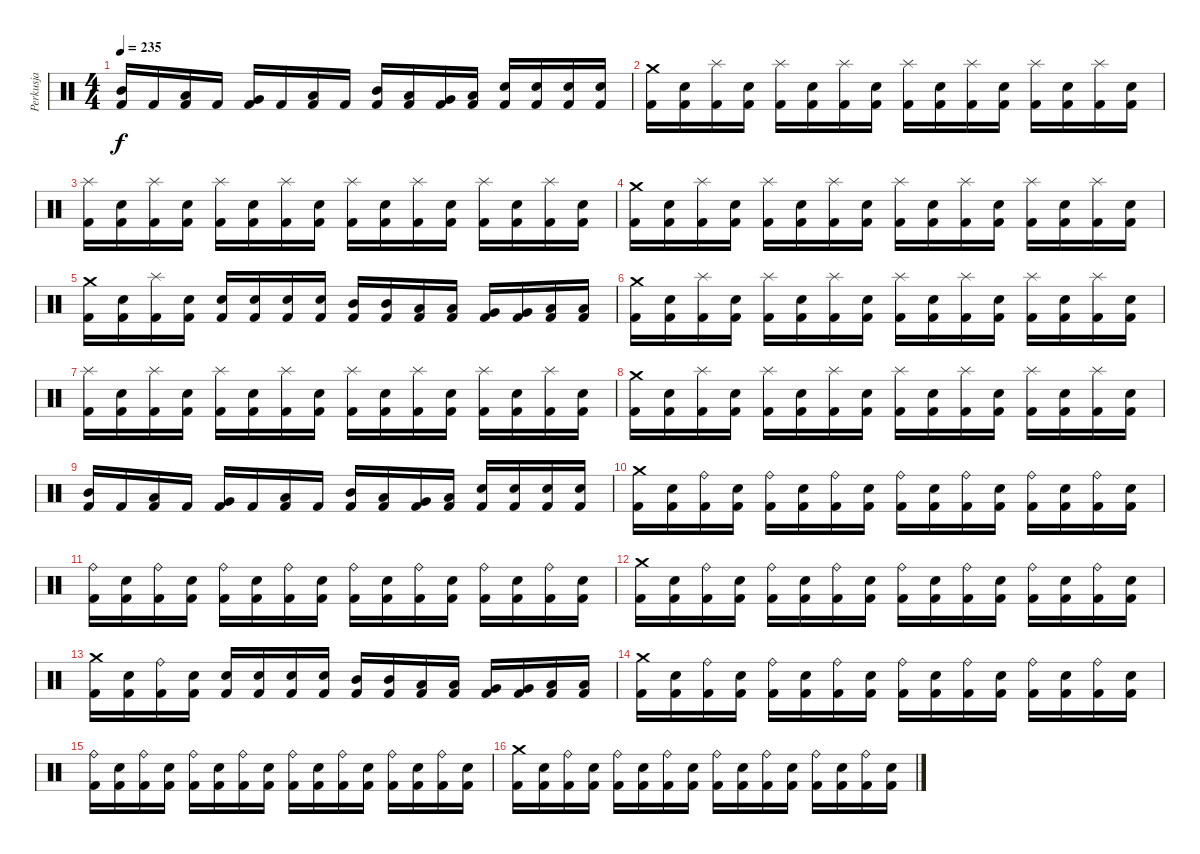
\track ("Perkusja" "Perkusja") {instrument percussion}
\staff {score}
\articulation defaults
\ts (4 4)
\tempo 235
\clef neutral
\ks c
("Mid Tom (hit)" "Kick (hit) 2").16{dy f} "Kick (hit) 2".16 ("Low Tom (hit)" "Kick (hit) 2").16 "Kick (hit) 2".16 ("Very Low Tom (hit)" "Kick (hit) 2").16 "Kick (hit) 2".16 ("Low Floor Tom (hit)" "Kick (hit) 2").16 "Kick (hit) 2".16 ("Mid Tom (hit)" "Kick (hit) 2").16 ("Low Tom (hit)" "Kick (hit) 2").16 ("Very Low Tom (hit)" "Kick (hit) 2").16 ("Low Floor Tom (hit)" "Kick (hit) 2").16 ("Snare (hit) 2" "Kick (hit) 2").16 ("Snare (hit) 2" "Kick (hit) 2").16 ("Snare (hit) 2" "Kick (hit) 2").16 ("Snare (hit) 2" "Kick (hit) 2").16 |
("Crash medium (hit)" "Kick (hit) 2").16 ("Snare (hit) 2" "Kick (hit) 2").16 ("Splash (hit)" "Kick (hit) 2").16 ("Snare (hit) 2" "Kick (hit) 2").16 ("Splash (hit)" "Kick (hit) 2").16 ("Snare (hit) 2" "Kick (hit) 2").16 ("Splash (hit)" "Kick (hit) 2").16 ("Snare (hit) 2" "Kick (hit) 2").16 ("Splash (hit)" "Kick (hit) 2").16 ("Snare (hit) 2" "Kick (hit) 2").16 ("Splash (hit)" "Kick (hit) 2").16 ("Snare (hit) 2" "Kick (hit) 2").16 ("Splash (hit)" "Kick (hit) 2").16 ("Snare (hit) 2" "Kick (hit) 2").16 ("Splash (hit)" "Kick (hit) 2").16 ("Snare (hit) 2" "Kick (hit) 2").16 |
("Splash (hit)" "Kick (hit) 2").16 ("Snare (hit) 2" "Kick (hit) 2").16 ("Splash (hit)" "Kick (hit) 2").16 ("Snare (hit) 2" "Kick (hit) 2").16 ("Splash (hit)" "Kick (hit) 2").16 ("Snare (hit) 2" "Kick (hit) 2").16 ("Splash (hit)" "Kick (hit) 2").16 ("Snare (hit) 2" "Kick (hit) 2").16 ("Splash (hit)" "Kick (hit) 2").16 ("Snare (hit) 2" "Kick (hit) 2").16 ("Splash (hit)" "Kick (hit) 2").16 ("Snare (hit) 2" "Kick (hit) 2").16 ("Splash (hit)" "Kick (hit) 2").16 ("Snare (hit) 2" "Kick (hit) 2").16 ("Splash (hit)" "Kick (hit) 2").16 ("Snare (hit) 2" "Kick (hit) 2").16 |
("Crash medium (hit)" "Kick (hit) 2").16 ("Snare (hit) 2" "Kick (hit) 2").16 ("Splash (hit)" "Kick (hit) 2").16 ("Snare (hit) 2" "Kick (hit) 2").16 ("Splash (hit)" "Kick (hit) 2").16 ("Snare (hit) 2" "Kick (hit) 2").16 ("Splash (hit)" "Kick (hit) 2").16 ("Snare (hit) 2" "Kick (hit) 2").16 ("Splash (hit)" "Kick (hit) 2").16 ("Snare (hit) 2" "Kick (hit) 2").16 ("Splash (hit)" "Kick (hit) 2").16 ("Snare (hit) 2" "Kick (hit) 2").16 ("Splash (hit)" "Kick (hit) 2").16 ("Snare (hit) 2" "Kick (hit) 2").16 ("Splash (hit)" "Kick (hit) 2").16 ("Snare (hit) 2" "Kick (hit) 2").16 |
("Crash medium (hit)" "Kick (hit) 2").16 ("Snare (hit) 2" "Kick (hit) 2").16 ("Splash (hit)" "Kick (hit) 2").16 ("Snare (hit) 2" "Kick (hit) 2").16 ("Electric Snare (hit)" "Kick (hit) 2").16 ("Electric Snare (hit)" "Kick (hit) 2").16 ("Electric Snare (hit)" "Kick (hit) 2").16 ("Electric Snare (hit)" "Kick (hit) 2").16 ("Mid Tom (hit)" "Kick (hit) 2").16 ("Mid Tom (hit)" "Kick (hit) 2").16 ("Low Tom (hit)" "Kick (hit) 2").16 ("Low Tom (hit)" "Kick (hit) 2").16 ("Very Low Tom (hit)" "Kick (hit) 2").16 ("Very Low Tom (hit)" "Kick (hit) 2").16 ("Low Floor Tom (hit)" "Kick (hit) 2").16 ("Low Floor Tom (hit)" "Kick (hit) 2").16 |
("Crash medium (hit)" "Kick (hit) 2").16 ("Snare (hit) 2" "Kick (hit) 2").16 ("Splash (hit)" "Kick (hit) 2").16 ("Snare (hit) 2" "Kick (hit) 2").16 ("Splash (hit)" "Kick (hit) 2").16 ("Snare (hit) 2" "Kick (hit) 2").16 ("Splash (hit)" "Kick (hit) 2").16 ("Snare (hit) 2" "Kick (hit) 2").16 ("Splash (hit)" "Kick (hit) 2").16 ("Snare (hit) 2" "Kick (hit) 2").16 ("Splash (hit)" "Kick (hit) 2").16 ("Snare (hit) 2" "Kick (hit) 2").16 ("Splash (hit)" "Kick (hit) 2").16 ("Snare (hit) 2" "Kick (hit) 2").16 ("Splash (hit)" "Kick (hit) 2").16 ("Snare (hit) 2" "Kick (hit) 2").16 |
("Splash (hit)" "Kick (hit) 2").16 ("Snare (hit) 2" "Kick (hit) 2").16 ("Splash (hit)" "Kick (hit) 2").16 ("Snare (hit) 2" "Kick (hit) 2").16 ("Splash (hit)" "Kick (hit) 2").16 ("Snare (hit) 2" "Kick (hit) 2").16 ("Splash (hit)" "Kick (hit) 2").16 ("Snare (hit) 2" "Kick (hit) 2").16 ("Splash (hit)" "Kick (hit) 2").16 ("Snare (hit) 2" "Kick (hit) 2").16 ("Splash (hit)" "Kick (hit) 2").16 ("Snare (hit) 2" "Kick (hit) 2").16 ("Splash (hit)" "Kick (hit) 2").16 ("Snare (hit) 2" "Kick (hit) 2").16 ("Splash (hit)" "Kick (hit) 2").16 ("Snare (hit) 2" "Kick (hit) 2").16 |
("Crash medium (hit)" "Kick (hit) 2").16 ("Snare (hit) 2" "Kick (hit) 2").16 ("Splash (hit)" "Kick (hit) 2").16 ("Snare (hit) 2" "Kick (hit) 2").16 ("Splash (hit)" "Kick (hit) 2").16 ("Snare (hit) 2" "Kick (hit) 2").16 ("Splash (hit)" "Kick (hit) 2").16 ("Snare (hit) 2" "Kick (hit) 2").16 ("Splash (hit)" "Kick (hit) 2").16 ("Snare (hit) 2" "Kick (hit) 2").16 ("Splash (hit)" "Kick (hit) 2").16 ("Snare (hit) 2" "Kick (hit) 2").16 ("Splash (hit)" "Kick (hit) 2").16 ("Snare (hit) 2" "Kick (hit) 2").16 ("Splash (hit)" "Kick (hit) 2").16 ("Snare (hit) 2" "Kick (hit) 2").16 |
("Mid Tom (hit)" "Kick (hit) 2").16 "Kick (hit) 2".16 ("Low Tom (hit)" "Kick (hit) 2").16 "Kick (hit) 2".16 ("Very Low Tom (hit)" "Kick (hit) 2").16 "Kick (hit) 2".16 ("Low Floor Tom (hit)" "Kick (hit) 2").16 "Kick (hit) 2".16 ("Mid Tom (hit)" "Kick (hit) 2").16 ("Low Tom (hit)" "Kick (hit) 2").16 ("Very Low Tom (hit)" "Kick (hit) 2").16 ("Low Floor Tom (hit)" "Kick (hit) 2").16 ("Snare (hit) 2" "Kick (hit) 2").16 ("Snare (hit) 2" "Kick (hit) 2").16 ("Snare (hit) 2" "Kick (hit) 2").16 ("Snare (hit) 2" "Kick (hit) 2").16 |
("Crash medium (hit)" "Kick (hit) 2").16 ("Snare (hit) 2" "Kick (hit) 2").16 ("Ride (bell)" "Kick (hit) 2").16 ("Snare (hit) 2" "Kick (hit) 2").16 ("Ride (bell)" "Kick (hit) 2").16 ("Snare (hit) 2" "Kick (hit) 2").16 ("Ride (bell)" "Kick (hit) 2").16 ("Snare (hit) 2" "Kick (hit) 2").16 ("Ride (bell)" "Kick (hit) 2").16 ("Snare (hit) 2" "Kick (hit) 2").16 ("Ride (bell)" "Kick (hit) 2").16 ("Snare (hit) 2" "Kick (hit) 2").16 ("Ride (bell)" "Kick (hit) 2").16 ("Snare (hit) 2" "Kick (hit) 2").16 ("Ride (bell)" "Kick (hit) 2").16 ("Snare (hit) 2" "Kick (hit) 2").16 |
("Ride (bell)" "Kick (hit) 2").16 ("Snare (hit) 2" "Kick (hit) 2").16 ("Ride (bell)" "Kick (hit) 2").16 ("Snare (hit) 2" "Kick (hit) 2").16 ("Ride (bell)" "Kick (hit) 2").16 ("Snare (hit) 2" "Kick (hit) 2").16 ("Ride (bell)" "Kick (hit) 2").16 ("Snare (hit) 2" "Kick (hit) 2").16 ("Ride (bell)" "Kick (hit) 2").16 ("Snare (hit) 2" "Kick (hit) 2").16 ("Ride (bell)" "Kick (hit) 2").16 ("Snare (hit) 2" "Kick (hit) 2").16 ("Ride (bell)" "Kick (hit) 2").16 ("Snare (hit) 2" "Kick (hit) 2").16 ("Ride (bell)" "Kick (hit) 2").16 ("Snare (hit) 2" "Kick (hit) 2").16 |
("Crash medium (hit)" "Kick (hit) 2").16 ("Snare (hit) 2" "Kick (hit) 2").16 ("Ride (bell)" "Kick (hit) 2").16 ("Snare (hit) 2" "Kick (hit) 2").16 ("Ride (bell)" "Kick (hit) 2").16 ("Snare (hit) 2" "Kick (hit) 2").16 ("Ride (bell)" "Kick (hit) 2").16 ("Snare (hit) 2" "Kick (hit) 2").16 ("Ride (bell)" "Kick (hit) 2").16 ("Snare (hit) 2" "Kick (hit) 2").16 ("Ride (bell)" "Kick (hit) 2").16 ("Snare (hit) 2" "Kick (hit) 2").16 ("Ride (bell)" "Kick (hit) 2").16 ("Snare (hit) 2" "Kick (hit) 2").16 ("Ride (bell)" "Kick (hit) 2").16 ("Snare (hit) 2" "Kick (hit) 2").16 |
("Crash medium (hit)" "Kick (hit) 2").16 ("Snare (hit) 2" "Kick (hit) 2").16 ("Ride (bell)" "Kick (hit) 2").16 ("Snare (hit) 2" "Kick (hit) 2").16 ("Electric Snare (hit)" "Kick (hit) 2").16 ("Electric Snare (hit)" "Kick (hit) 2").16 ("Electric Snare (hit)" "Kick (hit) 2").16 ("Electric Snare (hit)" "Kick (hit) 2").16 ("Mid Tom (hit)" "Kick (hit) 2").16 ("Mid Tom (hit)" "Kick (hit) 2").16 ("Low Tom (hit)" "Kick (hit) 2").16 ("Low Tom (hit)" "Kick (hit) 2").16 ("Very Low Tom (hit)" "Kick (hit) 2").16 ("Very Low Tom (hit)" "Kick (hit) 2").16 ("Low Floor Tom (hit)" "Kick (hit) 2").16 ("Low Floor Tom (hit)" "Kick (hit) 2").16 |
("Crash medium (hit)" "Kick (hit) 2").16 ("Snare (hit) 2" "Kick (hit) 2").16 ("Ride (bell)" "Kick (hit) 2").16 ("Snare (hit) 2" "Kick (hit) 2").16 ("Ride (bell)" "Kick (hit) 2").16 ("Snare (hit) 2" "Kick (hit) 2").16 ("Ride (bell)" "Kick (hit) 2").16 ("Snare (hit) 2" "Kick (hit) 2").16 ("Ride (bell)" "Kick (hit) 2").16 ("Snare (hit) 2" "Kick (hit) 2").16 ("Ride (bell)" "Kick (hit) 2").16 ("Snare (hit) 2" "Kick (hit) 2").16 ("Ride (bell)" "Kick (hit) 2").16 ("Snare (hit) 2" "Kick (hit) 2").16 ("Ride (bell)" "Kick (hit) 2").16 ("Snare (hit) 2" "Kick (hit) 2").16 |
("Ride (bell)" "Kick (hit) 2").16 ("Snare (hit) 2" "Kick (hit) 2").16 ("Ride (bell)" "Kick (hit) 2").16 ("Snare (hit) 2" "Kick (hit) 2").16 ("Ride (bell)" "Kick (hit) 2").16 ("Snare (hit) 2" "Kick (hit) 2").16 ("Ride (bell)" "Kick (hit) 2").16 ("Snare (hit) 2" "Kick (hit) 2").16 ("Ride (bell)" "Kick (hit) 2").16 ("Snare (hit) 2" "Kick (hit) 2").16 ("Ride (bell)" "Kick (hit) 2").16 ("Snare (hit) 2" "Kick (hit) 2").16 ("Ride (bell)" "Kick (hit) 2").16 ("Snare (hit) 2" "Kick (hit) 2").16 ("Ride (bell)" "Kick (hit) 2").16 ("Snare (hit) 2" "Kick (hit) 2").16 |
("Crash medium (hit)" "Kick (hit) 2").16 ("Snare (hit) 2" "Kick (hit) 2").16 ("Ride (bell)" "Kick (hit) 2").16 ("Snare (hit) 2" "Kick (hit) 2").16 ("Ride (bell)" "Kick (hit) 2").16 ("Snare (hit) 2" "Kick (hit) 2").16 ("Ride (bell)" "Kick (hit) 2").16 ("Snare (hit) 2" "Kick (hit) 2").16 ("Ride (bell)" "Kick (hit) 2").16 ("Snare (hit) 2" "Kick (hit) 2").16 ("Ride (bell)" "Kick (hit) 2").16 ("Snare (hit) 2" "Kick (hit) 2").16 ("Ride (bell)" "Kick (hit) 2").16 ("Snare (hit) 2" "Kick (hit) 2").16 ("Ride (bell)" "Kick (hit) 2").16 ("Snare (hit) 2" "Kick (hit) 2").16
